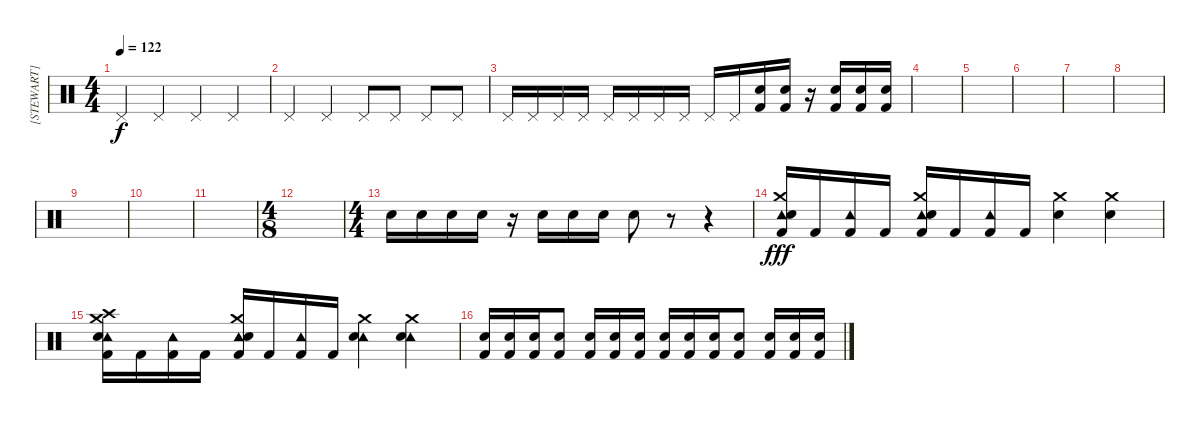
\track ("[STEWART]" "[STEWART]") {instrument percussion}
\staff {score}
\articulation defaults
\ts (4 4)
\tempo 122
\clef neutral
\ks c "Pedal Hi-Hat (hit)".4{dy f} "Pedal Hi-Hat (hit)".4 "Pedal Hi-Hat (hit)".4 "Pedal Hi-Hat (hit)".4
|
"Pedal Hi-Hat (hit)".4 "Pedal Hi-Hat (hit)".4 "Pedal Hi-Hat (hit)".8 "Pedal Hi-Hat (hit)".8 "Pedal Hi-Hat (hit)".8 "Pedal Hi-Hat (hit)".8 |
"Pedal Hi-Hat (hit)".16 "Pedal Hi-Hat (hit)".16 "Pedal Hi-Hat (hit)".16 "Pedal Hi-Hat (hit)".16 "Pedal Hi-Hat (hit)".16 "Pedal Hi-Hat (hit)".16 "Pedal Hi-Hat (hit)".16 "Pedal Hi-Hat (hit)".16 "Pedal Hi-Hat (hit)".16 "Pedal Hi-Hat (hit)".16 ("Electric Snare (hit)" "Kick (hit) 2").16 ("Electric Snare (hit)" "Kick (hit) 2").16 r.16 ("Electric Snare (hit)" "Kick (hit) 2").16 ("Electric Snare (hit)" "Kick (hit) 2").16 ("Electric Snare (hit)" "Kick (hit) 2").16 |
|
|
|
|
|
|
|
|
\ts (4 8)
|
\ts (4 4)
"Electric Snare (hit)".16 "Electric Snare (hit)".16 "Electric Snare (hit)".16 "Electric Snare (hit)".16 r.16 "Electric Snare (hit)".16 "Electric Snare (hit)".16 "Electric Snare (hit)".16 "Electric Snare (hit)".8 r.8 r.4 |
("Crash medium (hit)" "Tambourine (hit)" "Electric Snare (hit)" "Kick (hit) 2").16{dy fff} "Kick (hit) 2".16 ("Tambourine (hit)" "Kick (hit) 2").16 "Kick (hit) 2".16 ("Crash medium (hit)" "Tambourine (hit)" "Electric Snare (hit)" "Kick (hit) 2").16 "Kick (hit) 2".16 ("Tambourine (hit)" "Kick (hit) 2").16 "Kick (hit) 2".16 ("Crash medium (hit)" "Electric Snare (hit)").4 ("Crash medium (hit)" "Electric Snare (hit)").4 |
("Crash medium (hit)" "Crash high (hit)" "Tambourine (hit)" "Electric Snare (hit)" "Kick (hit) 2").16 "Kick (hit) 2".16 ("Tambourine (hit)" "Kick (hit) 2").16 "Kick (hit) 2".16 ("Crash medium (hit)" "Tambourine (hit)" "Electric Snare (hit)" "Kick (hit) 2").16 "Kick (hit) 2".16 ("Tambourine (hit)" "Kick (hit) 2").16 "Kick (hit) 2".16 ("Crash medium (hit)" "Tambourine (hit)" "Electric Snare (hit)").4 ("Crash medium (hit)" "Tambourine (hit)" "Electric Snare (hit)").4 |
("Electric Snare (hit)" "Kick (hit) 2").16 ("Electric Snare (hit)" "Kick (hit) 2").16 ("Electric Snare (hit)" "Kick (hit) 2").16 ("Electric Snare (hit)" "Kick (hit) 2").8 ("Electric Snare (hit)" "Kick (hit) 2").16 ("Electric Snare (hit)" "Kick (hit) 2").16 ("Electric Snare (hit)" "Kick (hit) 2").16 ("Electric Snare (hit)" "Kick (hit) 2").16 ("Electric Snare (hit)" "Kick (hit) 2").16 ("Electric Snare (hit)" "Kick (hit) 2").16 ("Electric Snare (hit)" "Kick (hit) 2").8 ("Electric Snare (hit)" "Kick (hit) 2").16 ("Electric Snare (hit)" "Kick (hit) 2").16 ("Electric Snare (hit)" "Kick (hit) 2").16
